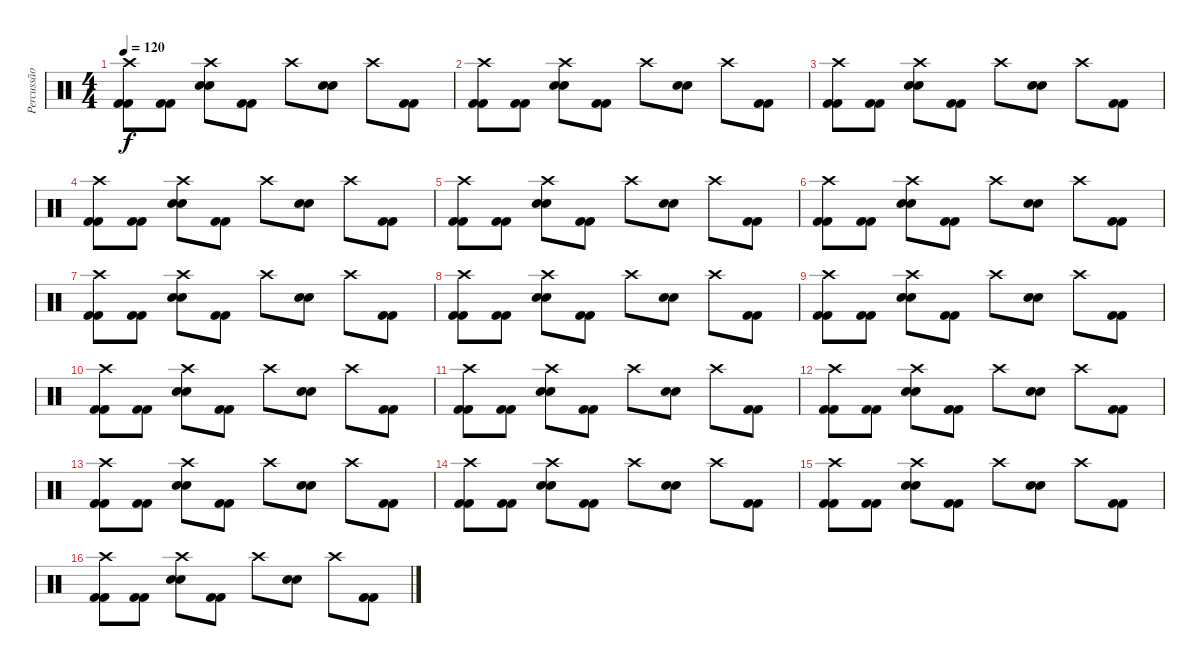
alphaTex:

\track ("Percussão" "Percussão") {instrument percussion}
\staff {score}
\articulation defaults
\ts (4 4)
\tempo 120
\clef neutral
\ks c
("Crash high (hit)" "Kick (hit) 2" "Kick (hit) 2").8{dy f} ("Kick (hit) 2" "Kick (hit) 2").8 ("Crash high (hit)" "Snare (hit) 2" "Snare (hit) 2").8 ("Kick (hit) 2" "Kick (hit) 2").8 "Crash high (hit)".8 ("Snare (hit) 2" "Snare (hit) 2").8 "Crash high (hit)".8 ("Kick (hit) 2" "Kick (hit) 2").8 |
("Crash high (hit)" "Kick (hit) 2" "Kick (hit) 2").8 ("Kick (hit) 2" "Kick (hit) 2").8 ("Crash high (hit)" "Snare (hit) 2" "Snare (hit) 2").8 ("Kick (hit) 2" "Kick (hit) 2").8 "Crash high (hit)".8 ("Snare (hit) 2" "Snare (hit) 2").8 "Crash high (hit)".8 ("Kick (hit) 2" "Kick (hit) 2").8 |
("Crash high (hit)" "Kick (hit) 2" "Kick (hit) 2").8 ("Kick (hit) 2" "Kick (hit) 2").8 ("Crash high (hit)" "Snare (hit) 2" "Snare (hit) 2").8 ("Kick (hit) 2" "Kick (hit) 2").8 "Crash high (hit)".8 ("Snare (hit) 2" "Snare (hit) 2").8 "Crash high (hit)".8 ("Kick (hit) 2" "Kick (hit) 2").8 |
("Crash high (hit)" "Kick (hit) 2" "Kick (hit) 2").8 ("Kick (hit) 2" "Kick (hit) 2").8 ("Crash high (hit)" "Snare (hit) 2" "Snare (hit) 2").8 ("Kick (hit) 2" "Kick (hit) 2").8 "Crash high (hit)".8 ("Snare (hit) 2" "Snare (hit) 2").8 "Crash high (hit)".8 ("Kick (hit) 2" "Kick (hit) 2").8 |
("Crash high (hit)" "Kick (hit) 2" "Kick (hit) 2").8 ("Kick (hit) 2" "Kick (hit) 2").8 ("Crash high (hit)" "Snare (hit) 2" "Snare (hit) 2").8 ("Kick (hit) 2" "Kick (hit) 2").8 "Crash high (hit)".8 ("Snare (hit) 2" "Snare (hit) 2").8 "Crash high (hit)".8 ("Kick (hit) 2" "Kick (hit) 2").8 |
("Crash high (hit)" "Kick (hit) 2" "Kick (hit) 2").8 ("Kick (hit) 2" "Kick (hit) 2").8 ("Crash high (hit)" "Snare (hit) 2" "Snare (hit) 2").8 ("Kick (hit) 2" "Kick (hit) 2").8 "Crash high (hit)".8 ("Snare (hit) 2" "Snare (hit) 2").8 "Crash high (hit)".8 ("Kick (hit) 2" "Kick (hit) 2").8 |
("Crash high (hit)" "Kick (hit) 2" "Kick (hit) 2").8 ("Kick (hit) 2" "Kick (hit) 2").8 ("Crash high (hit)" "Snare (hit) 2" "Snare (hit) 2").8 ("Kick (hit) 2" "Kick (hit) 2").8 "Crash high (hit)".8 ("Snare (hit) 2" "Snare (hit) 2").8 "Crash high (hit)".8 ("Kick (hit) 2" "Kick (hit) 2").8 |
("Crash high (hit)" "Kick (hit) 2" "Kick (hit) 2").8 ("Kick (hit) 2" "Kick (hit) 2").8 ("Crash high (hit)" "Snare (hit) 2" "Snare (hit) 2").8 ("Kick (hit) 2" "Kick (hit) 2").8 "Crash high (hit)".8 ("Snare (hit) 2" "Snare (hit) 2").8 "Crash high (hit)".8 ("Kick (hit) 2" "Kick (hit) 2").8 |
("Crash high (hit)" "Kick (hit) 2" "Kick (hit) 2").8 ("Kick (hit) 2" "Kick (hit) 2").8 ("Crash high (hit)" "Snare (hit) 2" "Snare (hit) 2").8 ("Kick (hit) 2" "Kick (hit) 2").8 "Crash high (hit)".8 ("Snare (hit) 2" "Snare (hit) 2").8 "Crash high (hit)".8 ("Kick (hit) 2" "Kick (hit) 2").8 |
("Crash high (hit)" "Kick (hit) 2" "Kick (hit) 2").8 ("Kick (hit) 2" "Kick (hit) 2").8 ("Crash high (hit)" "Snare (hit) 2" "Snare (hit) 2").8 ("Kick (hit) 2" "Kick (hit) 2").8 "Crash high (hit)".8 ("Snare (hit) 2" "Snare (hit) 2").8 "Crash high (hit)".8 ("Kick (hit) 2" "Kick (hit) 2").8 |
("Crash high (hit)" "Kick (hit) 2" "Kick (hit) 2").8 ("Kick (hit) 2" "Kick (hit) 2").8 ("Crash high (hit)" "Snare (hit) 2" "Snare (hit) 2").8 ("Kick (hit) 2" "Kick (hit) 2").8 "Crash high (hit)".8 ("Snare (hit) 2" "Snare (hit) 2").8 "Crash high (hit)".8 ("Kick (hit) 2" "Kick (hit) 2").8 |
("Crash high (hit)" "Kick (hit) 2" "Kick (hit) 2").8 ("Kick (hit) 2" "Kick (hit) 2").8 ("Crash high (hit)" "Snare (hit) 2" "Snare (hit) 2").8 ("Kick (hit) 2" "Kick (hit) 2").8 "Crash high (hit)".8 ("Snare (hit) 2" "Snare (hit) 2").8 "Crash high (hit)".8 ("Kick (hit) 2" "Kick (hit) 2").8 |
("Crash high (hit)" "Kick (hit) 2" "Kick (hit) 2").8 ("Kick (hit) 2" "Kick (hit) 2").8 ("Crash high (hit)" "Snare (hit) 2" "Snare (hit) 2").8 ("Kick (hit) 2" "Kick (hit) 2").8 "Crash high (hit)".8 ("Snare (hit) 2" "Snare (hit) 2").8 "Crash high (hit)".8 ("Kick (hit) 2" "Kick (hit) 2").8 |
("Crash high (hit)" "Kick (hit) 2" "Kick (hit) 2").8 ("Kick (hit) 2" "Kick (hit) 2").8 ("Crash high (hit)" "Snare (hit) 2" "Snare (hit) 2").8 ("Kick (hit) 2" "Kick (hit) 2").8 "Crash high (hit)".8 ("Snare (hit) 2" "Snare (hit) 2").8 "Crash high (hit)".8 ("Kick (hit) 2" "Kick (hit) 2").8 |
("Crash high (hit)" "Kick (hit) 2" "Kick (hit) 2").8 ("Kick (hit) 2" "Kick (hit) 2").8 ("Crash high (hit)" "Snare (hit) 2" "Snare (hit) 2").8 ("Kick (hit) 2" "Kick (hit) 2").8 "Crash high (hit)".8 ("Snare (hit) 2" "Snare (hit) 2").8 "Crash high (hit)".8 ("Kick (hit) 2" "Kick (hit) 2").8 |
("Crash high (hit)" "Kick (hit) 2" "Kick (hit) 2").8 ("Kick (hit) 2" "Kick (hit) 2").8 ("Crash high (hit)" "Snare (hit) 2" "Snare (hit) 2").8 ("Kick (hit) 2" "Kick (hit) 2").8 "Crash high (hit)".8 ("Snare (hit) 2" "Snare (hit) 2").8 "Crash high (hit)".8 ("Kick (hit) 2" "Kick (hit) 2").8
